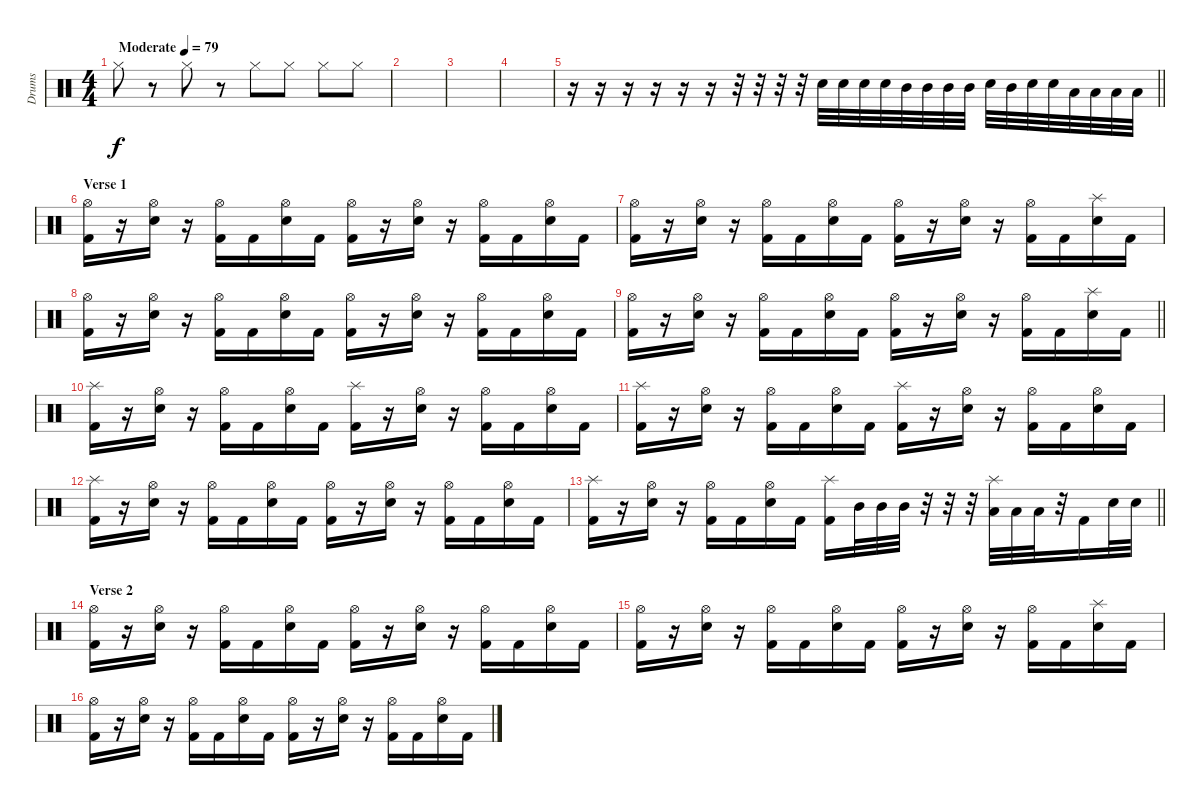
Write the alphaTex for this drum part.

\track ("Drums" "Drums") {instrument percussion}
\staff {score}
\articulation defaults
\ts (4 4)
\tempo (79 "Moderate")
\clef neutral
\ks c "Hi-Hat (closed)".8{dy f}
r.8 "Hi-Hat (closed)".8 r.8 "Hi-Hat (closed)".8 "Hi-Hat (closed)".8 "Hi-Hat (closed)".8 "Hi-Hat (closed)".8 |
|
|
|
\barLineRight lightlight
r.16 r.16 r.16 r.16 r.16 r.16 r.32 r.32 r.32 r.32 "Electric Snare (hit)".32 "Electric Snare (hit)".32 "Electric Snare (hit)".32 "Electric Snare (hit)".32 "Mid Tom (hit)".32 "Mid Tom (hit)".32 "Mid Tom (hit)".32 "Mid Tom (hit)".32 "Electric Snare (hit)".32 "Mid Tom (hit)".32 "Electric Snare (hit)".32 "Electric Snare (hit)".32 "Low Tom (hit)".32 "Low Tom (hit)".32 "Low Tom (hit)".32 "Low Tom (hit)".32 |
\section ("" "Verse 1")
("Hi-Hat (open)" "Kick (hit) 2").16 r.16 ("Hi-Hat (open)" "Electric Snare (hit)").16 r.16 ("Hi-Hat (open)" "Kick (hit) 2").16 "Kick (hit) 2".16 ("Hi-Hat (open)" "Electric Snare (hit)").16 "Kick (hit) 2".16 ("Hi-Hat (open)" "Kick (hit) 2").16 r.16 ("Hi-Hat (open)" "Electric Snare (hit)").16 r.16 ("Hi-Hat (open)" "Kick (hit) 2").16 "Kick (hit) 2".16 ("Hi-Hat (open)" "Electric Snare (hit)").16 "Kick (hit) 2".16 |
("Hi-Hat (open)" "Kick (hit) 2").16 r.16 ("Hi-Hat (open)" "Electric Snare (hit)").16 r.16 ("Hi-Hat (open)" "Kick (hit) 2").16 "Kick (hit) 2".16 ("Hi-Hat (open)" "Electric Snare (hit)").16 "Kick (hit) 2".16 ("Hi-Hat (open)" "Kick (hit) 2").16 r.16 ("Hi-Hat (open)" "Electric Snare (hit)").16 r.16 ("Hi-Hat (open)" "Kick (hit) 2").16 "Kick (hit) 2".16 ("Splash (hit)" "Electric Snare (hit)").16 "Kick (hit) 2".16 |
("Hi-Hat (open)" "Kick (hit) 2").16 r.16 ("Hi-Hat (open)" "Electric Snare (hit)").16 r.16 ("Hi-Hat (open)" "Kick (hit) 2").16 "Kick (hit) 2".16 ("Hi-Hat (open)" "Electric Snare (hit)").16 "Kick (hit) 2".16 ("Hi-Hat (open)" "Kick (hit) 2").16 r.16 ("Hi-Hat (open)" "Electric Snare (hit)").16 r.16 ("Hi-Hat (open)" "Kick (hit) 2").16 "Kick (hit) 2".16 ("Hi-Hat (open)" "Electric Snare (hit)").16 "Kick (hit) 2".16 |
\barLineRight lightlight
("Hi-Hat (open)" "Kick (hit) 2").16 r.16 ("Hi-Hat (open)" "Electric Snare (hit)").16 r.16 ("Hi-Hat (open)" "Kick (hit) 2").16 "Kick (hit) 2".16 ("Hi-Hat (open)" "Electric Snare (hit)").16 "Kick (hit) 2".16 ("Hi-Hat (open)" "Kick (hit) 2").16 r.16 ("Hi-Hat (open)" "Electric Snare (hit)").16 r.16 ("Hi-Hat (open)" "Kick (hit) 2").16 "Kick (hit) 2".16 ("Splash (hit)" "Electric Snare (hit)").16 "Kick (hit) 2".16 |
("Splash (hit)" "Kick (hit) 2").16 r.16 ("Hi-Hat (open)" "Electric Snare (hit)").16 r.16 ("Hi-Hat (open)" "Kick (hit) 2").16 "Kick (hit) 2".16 ("Hi-Hat (open)" "Electric Snare (hit)").16 "Kick (hit) 2".16 ("Splash (hit)" "Kick (hit) 2").16 r.16 ("Hi-Hat (open)" "Electric Snare (hit)").16 r.16 ("Hi-Hat (open)" "Kick (hit) 2").16 "Kick (hit) 2".16 ("Hi-Hat (open)" "Electric Snare (hit)").16 "Kick (hit) 2".16 |
("Splash (hit)" "Kick (hit) 2").16 r.16 ("Hi-Hat (open)" "Electric Snare (hit)").16 r.16 ("Hi-Hat (open)" "Kick (hit) 2").16 "Kick (hit) 2".16 ("Hi-Hat (open)" "Electric Snare (hit)").16 "Kick (hit) 2".16 ("Splash (hit)" "Kick (hit) 2").16 r.16 ("Hi-Hat (open)" "Electric Snare (hit)").16 r.16 ("Hi-Hat (open)" "Kick (hit) 2").16 "Kick (hit) 2".16 ("Hi-Hat (open)" "Electric Snare (hit)").16 "Kick (hit) 2".16 |
("Splash (hit)" "Kick (hit) 2").16 r.16 ("Hi-Hat (open)" "Electric Snare (hit)").16 r.16 ("Hi-Hat (open)" "Kick (hit) 2").16 "Kick (hit) 2".16 ("Hi-Hat (open)" "Electric Snare (hit)").16 "Kick (hit) 2".16 ("Hi-Hat (open)" "Kick (hit) 2").16 r.16 ("Hi-Hat (open)" "Electric Snare (hit)").16 r.16 ("Hi-Hat (open)" "Kick (hit) 2").16 "Kick (hit) 2".16 ("Hi-Hat (open)" "Electric Snare (hit)").16 "Kick (hit) 2".16 |
\barLineRight lightlight
("Splash (hit)" "Kick (hit) 2").16 r.16 ("Hi-Hat (open)" "Electric Snare (hit)").16 r.16 ("Hi-Hat (open)" "Kick (hit) 2").16 "Kick (hit) 2".16 ("Hi-Hat (open)" "Electric Snare (hit)").16 "Kick (hit) 2".16 ("Splash (hit)" "Kick (hit) 2").16 "Mid Tom (hit)".32 "Mid Tom (hit)".32 "Mid Tom (hit)".32 r.32 r.32 r.32 ("Splash (hit)" "Low Tom (hit)").32 "Low Tom (hit)".32 "Low Tom (hit)".32 r.32 "Kick (hit) 2".16 "Electric Snare (hit)".32 "Electric Snare (hit)".32 |
\section ("" "Verse 2")
("Hi-Hat (open)" "Kick (hit) 2").16 r.16 ("Hi-Hat (open)" "Electric Snare (hit)").16 r.16 ("Hi-Hat (open)" "Kick (hit) 2").16 "Kick (hit) 2".16 ("Hi-Hat (open)" "Electric Snare (hit)").16 "Kick (hit) 2".16 ("Hi-Hat (open)" "Kick (hit) 2").16 r.16 ("Hi-Hat (open)" "Electric Snare (hit)").16 r.16 ("Hi-Hat (open)" "Kick (hit) 2").16 "Kick (hit) 2".16 ("Hi-Hat (open)" "Electric Snare (hit)").16 "Kick (hit) 2".16 |
("Hi-Hat (open)" "Kick (hit) 2").16 r.16 ("Hi-Hat (open)" "Electric Snare (hit)").16 r.16 ("Hi-Hat (open)" "Kick (hit) 2").16 "Kick (hit) 2".16 ("Hi-Hat (open)" "Electric Snare (hit)").16 "Kick (hit) 2".16 ("Hi-Hat (open)" "Kick (hit) 2").16 r.16 ("Hi-Hat (open)" "Electric Snare (hit)").16 r.16 ("Hi-Hat (open)" "Kick (hit) 2").16 "Kick (hit) 2".16 ("Splash (hit)" "Electric Snare (hit)").16 "Kick (hit) 2".16 |
("Hi-Hat (open)" "Kick (hit) 2").16 r.16 ("Hi-Hat (open)" "Electric Snare (hit)").16 r.16 ("Hi-Hat (open)" "Kick (hit) 2").16 "Kick (hit) 2".16 ("Hi-Hat (open)" "Electric Snare (hit)").16 "Kick (hit) 2".16 ("Hi-Hat (open)" "Kick (hit) 2").16 r.16 ("Hi-Hat (open)" "Electric Snare (hit)").16 r.16 ("Hi-Hat (open)" "Kick (hit) 2").16 "Kick (hit) 2".16 ("Hi-Hat (open)" "Electric Snare (hit)").16 "Kick (hit) 2".16
